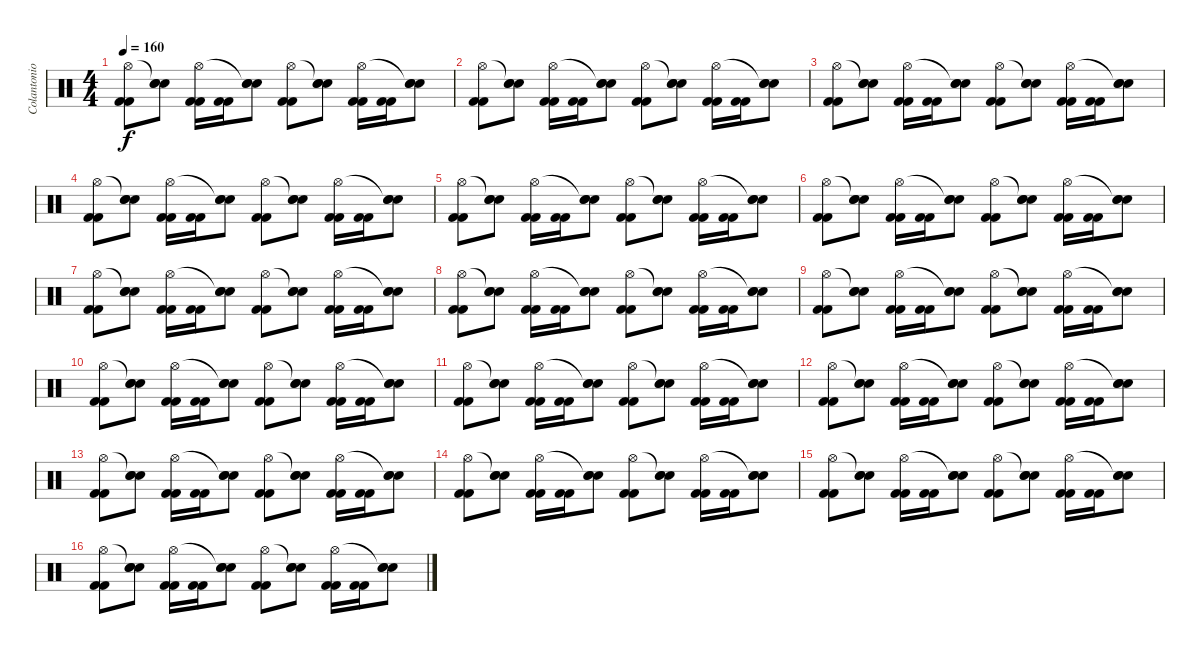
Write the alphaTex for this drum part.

\track ("Colantonio (Bateria)" "Colantonio") {instrument percussion}
\staff {score}
\articulation defaults
\ts (4 4)
\tempo 160
\clef neutral
\ks c
("Kick (hit) 2" "Kick (hit) 2" "Hi-Hat (open)").8{dy f} ("Snare (hit) 2" "Snare (hit) 2" "Snare (hit)"{t}).8 ("Kick (hit) 2" "Kick (hit) 2" "Hi-Hat (open)").16 ("Kick (hit) 2" "Kick (hit) 2").16 ("Snare (hit) 2" "Snare (hit) 2" "Snare (hit)"{t}).8 ("Kick (hit) 2" "Kick (hit) 2" "Hi-Hat (open)").8 ("Snare (hit) 2" "Snare (hit) 2" "Snare (hit)"{t}).8 ("Kick (hit) 2" "Kick (hit) 2" "Hi-Hat (open)").16 ("Kick (hit) 2" "Kick (hit) 2").16 ("Snare (hit) 2" "Snare (hit) 2" "Snare (hit)"{t}).8 |
("Kick (hit) 2" "Kick (hit) 2" "Hi-Hat (open)").8 ("Snare (hit) 2" "Snare (hit) 2" "Snare (hit)"{t}).8 ("Kick (hit) 2" "Kick (hit) 2" "Hi-Hat (open)").16 ("Kick (hit) 2" "Kick (hit) 2").16 ("Snare (hit) 2" "Snare (hit) 2" "Snare (hit)"{t}).8 ("Kick (hit) 2" "Kick (hit) 2" "Hi-Hat (open)").8 ("Snare (hit) 2" "Snare (hit) 2" "Snare (hit)"{t}).8 ("Kick (hit) 2" "Kick (hit) 2" "Hi-Hat (open)").16 ("Kick (hit) 2" "Kick (hit) 2").16 ("Snare (hit) 2" "Snare (hit) 2" "Snare (hit)"{t}).8 |
("Kick (hit) 2" "Kick (hit) 2" "Hi-Hat (open)").8 ("Snare (hit) 2" "Snare (hit) 2" "Snare (hit)"{t}).8 ("Kick (hit) 2" "Kick (hit) 2" "Hi-Hat (open)").16 ("Kick (hit) 2" "Kick (hit) 2").16 ("Snare (hit) 2" "Snare (hit) 2" "Snare (hit)"{t}).8 ("Kick (hit) 2" "Kick (hit) 2" "Hi-Hat (open)").8 ("Snare (hit) 2" "Snare (hit) 2" "Snare (hit)"{t}).8 ("Kick (hit) 2" "Kick (hit) 2" "Hi-Hat (open)").16 ("Kick (hit) 2" "Kick (hit) 2").16 ("Snare (hit) 2" "Snare (hit) 2" "Snare (hit)"{t}).8 |
("Kick (hit) 2" "Kick (hit) 2" "Hi-Hat (open)").8 ("Snare (hit) 2" "Snare (hit) 2" "Snare (hit)"{t}).8 ("Kick (hit) 2" "Kick (hit) 2" "Hi-Hat (open)").16 ("Kick (hit) 2" "Kick (hit) 2").16 ("Snare (hit) 2" "Snare (hit) 2" "Snare (hit)"{t}).8 ("Kick (hit) 2" "Kick (hit) 2" "Hi-Hat (open)").8 ("Snare (hit) 2" "Snare (hit) 2" "Snare (hit)"{t}).8 ("Kick (hit) 2" "Kick (hit) 2" "Hi-Hat (open)").16 ("Kick (hit) 2" "Kick (hit) 2").16 ("Snare (hit) 2" "Snare (hit) 2" "Snare (hit)"{t}).8 |
("Kick (hit) 2" "Kick (hit) 2" "Hi-Hat (open)").8 ("Snare (hit) 2" "Snare (hit) 2" "Snare (hit)"{t}).8 ("Kick (hit) 2" "Kick (hit) 2" "Hi-Hat (open)").16 ("Kick (hit) 2" "Kick (hit) 2").16 ("Snare (hit) 2" "Snare (hit) 2" "Snare (hit)"{t}).8 ("Kick (hit) 2" "Kick (hit) 2" "Hi-Hat (open)").8 ("Snare (hit) 2" "Snare (hit) 2" "Snare (hit)"{t}).8 ("Kick (hit) 2" "Kick (hit) 2" "Hi-Hat (open)").16 ("Kick (hit) 2" "Kick (hit) 2").16 ("Snare (hit) 2" "Snare (hit) 2" "Snare (hit)"{t}).8 |
("Kick (hit) 2" "Kick (hit) 2" "Hi-Hat (open)").8 ("Snare (hit) 2" "Snare (hit) 2" "Snare (hit)"{t}).8 ("Kick (hit) 2" "Kick (hit) 2" "Hi-Hat (open)").16 ("Kick (hit) 2" "Kick (hit) 2").16 ("Snare (hit) 2" "Snare (hit) 2" "Snare (hit)"{t}).8 ("Kick (hit) 2" "Kick (hit) 2" "Hi-Hat (open)").8 ("Snare (hit) 2" "Snare (hit) 2" "Snare (hit)"{t}).8 ("Kick (hit) 2" "Kick (hit) 2" "Hi-Hat (open)").16 ("Kick (hit) 2" "Kick (hit) 2").16 ("Snare (hit) 2" "Snare (hit) 2" "Snare (hit)"{t}).8 |
("Kick (hit) 2" "Kick (hit) 2" "Hi-Hat (open)").8 ("Snare (hit) 2" "Snare (hit) 2" "Snare (hit)"{t}).8 ("Kick (hit) 2" "Kick (hit) 2" "Hi-Hat (open)").16 ("Kick (hit) 2" "Kick (hit) 2").16 ("Snare (hit) 2" "Snare (hit) 2" "Snare (hit)"{t}).8 ("Kick (hit) 2" "Kick (hit) 2" "Hi-Hat (open)").8 ("Snare (hit) 2" "Snare (hit) 2" "Snare (hit)"{t}).8 ("Kick (hit) 2" "Kick (hit) 2" "Hi-Hat (open)").16 ("Kick (hit) 2" "Kick (hit) 2").16 ("Snare (hit) 2" "Snare (hit) 2" "Snare (hit)"{t}).8 |
("Kick (hit) 2" "Kick (hit) 2" "Hi-Hat (open)").8 ("Snare (hit) 2" "Snare (hit) 2" "Snare (hit)"{t}).8 ("Kick (hit) 2" "Kick (hit) 2" "Hi-Hat (open)").16 ("Kick (hit) 2" "Kick (hit) 2").16 ("Snare (hit) 2" "Snare (hit) 2" "Snare (hit)"{t}).8 ("Kick (hit) 2" "Kick (hit) 2" "Hi-Hat (open)").8 ("Snare (hit) 2" "Snare (hit) 2" "Snare (hit)"{t}).8 ("Kick (hit) 2" "Kick (hit) 2" "Hi-Hat (open)").16 ("Kick (hit) 2" "Kick (hit) 2").16 ("Snare (hit) 2" "Snare (hit) 2" "Snare (hit)"{t}).8 |
("Kick (hit) 2" "Kick (hit) 2" "Hi-Hat (open)").8 ("Snare (hit) 2" "Snare (hit) 2" "Snare (hit)"{t}).8 ("Kick (hit) 2" "Kick (hit) 2" "Hi-Hat (open)").16 ("Kick (hit) 2" "Kick (hit) 2").16 ("Snare (hit) 2" "Snare (hit) 2" "Snare (hit)"{t}).8 ("Kick (hit) 2" "Kick (hit) 2" "Hi-Hat (open)").8 ("Snare (hit) 2" "Snare (hit) 2" "Snare (hit)"{t}).8 ("Kick (hit) 2" "Kick (hit) 2" "Hi-Hat (open)").16 ("Kick (hit) 2" "Kick (hit) 2").16 ("Snare (hit) 2" "Snare (hit) 2" "Snare (hit)"{t}).8 |
("Kick (hit) 2" "Kick (hit) 2" "Hi-Hat (open)").8 ("Snare (hit) 2" "Snare (hit) 2" "Snare (hit)"{t}).8 ("Kick (hit) 2" "Kick (hit) 2" "Hi-Hat (open)").16 ("Kick (hit) 2" "Kick (hit) 2").16 ("Snare (hit) 2" "Snare (hit) 2" "Snare (hit)"{t}).8 ("Kick (hit) 2" "Kick (hit) 2" "Hi-Hat (open)").8 ("Snare (hit) 2" "Snare (hit) 2" "Snare (hit)"{t}).8 ("Kick (hit) 2" "Kick (hit) 2" "Hi-Hat (open)").16 ("Kick (hit) 2" "Kick (hit) 2").16 ("Snare (hit) 2" "Snare (hit) 2" "Snare (hit)"{t}).8 |
("Kick (hit) 2" "Kick (hit) 2" "Hi-Hat (open)").8 ("Snare (hit) 2" "Snare (hit) 2" "Snare (hit)"{t}).8 ("Kick (hit) 2" "Kick (hit) 2" "Hi-Hat (open)").16 ("Kick (hit) 2" "Kick (hit) 2").16 ("Snare (hit) 2" "Snare (hit) 2" "Snare (hit)"{t}).8 ("Kick (hit) 2" "Kick (hit) 2" "Hi-Hat (open)").8 ("Snare (hit) 2" "Snare (hit) 2" "Snare (hit)"{t}).8 ("Kick (hit) 2" "Kick (hit) 2" "Hi-Hat (open)").16 ("Kick (hit) 2" "Kick (hit) 2").16 ("Snare (hit) 2" "Snare (hit) 2" "Snare (hit)"{t}).8 |
("Kick (hit) 2" "Kick (hit) 2" "Hi-Hat (open)").8 ("Snare (hit) 2" "Snare (hit) 2" "Snare (hit)"{t}).8 ("Kick (hit) 2" "Kick (hit) 2" "Hi-Hat (open)").16 ("Kick (hit) 2" "Kick (hit) 2").16 ("Snare (hit) 2" "Snare (hit) 2" "Snare (hit)"{t}).8 ("Kick (hit) 2" "Kick (hit) 2" "Hi-Hat (open)").8 ("Snare (hit) 2" "Snare (hit) 2" "Snare (hit)"{t}).8 ("Kick (hit) 2" "Kick (hit) 2" "Hi-Hat (open)").16 ("Kick (hit) 2" "Kick (hit) 2").16 ("Snare (hit) 2" "Snare (hit) 2" "Snare (hit)"{t}).8 |
("Kick (hit) 2" "Kick (hit) 2" "Hi-Hat (open)").8 ("Snare (hit) 2" "Snare (hit) 2" "Snare (hit)"{t}).8 ("Kick (hit) 2" "Kick (hit) 2" "Hi-Hat (open)").16 ("Kick (hit) 2" "Kick (hit) 2").16 ("Snare (hit) 2" "Snare (hit) 2" "Snare (hit)"{t}).8 ("Kick (hit) 2" "Kick (hit) 2" "Hi-Hat (open)").8 ("Snare (hit) 2" "Snare (hit) 2" "Snare (hit)"{t}).8 ("Kick (hit) 2" "Kick (hit) 2" "Hi-Hat (open)").16 ("Kick (hit) 2" "Kick (hit) 2").16 ("Snare (hit) 2" "Snare (hit) 2" "Snare (hit)"{t}).8 |
("Kick (hit) 2" "Kick (hit) 2" "Hi-Hat (open)").8 ("Snare (hit) 2" "Snare (hit) 2" "Snare (hit)"{t}).8 ("Kick (hit) 2" "Kick (hit) 2" "Hi-Hat (open)").16 ("Kick (hit) 2" "Kick (hit) 2").16 ("Snare (hit) 2" "Snare (hit) 2" "Snare (hit)"{t}).8 ("Kick (hit) 2" "Kick (hit) 2" "Hi-Hat (open)").8 ("Snare (hit) 2" "Snare (hit) 2" "Snare (hit)"{t}).8 ("Kick (hit) 2" "Kick (hit) 2" "Hi-Hat (open)").16 ("Kick (hit) 2" "Kick (hit) 2").16 ("Snare (hit) 2" "Snare (hit) 2" "Snare (hit)"{t}).8 |
("Kick (hit) 2" "Kick (hit) 2" "Hi-Hat (open)").8 ("Snare (hit) 2" "Snare (hit) 2" "Snare (hit)"{t}).8 ("Kick (hit) 2" "Kick (hit) 2" "Hi-Hat (open)").16 ("Kick (hit) 2" "Kick (hit) 2").16 ("Snare (hit) 2" "Snare (hit) 2" "Snare (hit)"{t}).8 ("Kick (hit) 2" "Kick (hit) 2" "Hi-Hat (open)").8 ("Snare (hit) 2" "Snare (hit) 2" "Snare (hit)"{t}).8 ("Kick (hit) 2" "Kick (hit) 2" "Hi-Hat (open)").16 ("Kick (hit) 2" "Kick (hit) 2").16 ("Snare (hit) 2" "Snare (hit) 2" "Snare (hit)"{t}).8 |
("Kick (hit) 2" "Kick (hit) 2" "Hi-Hat (open)").8 ("Snare (hit) 2" "Snare (hit) 2" "Snare (hit)"{t}).8 ("Kick (hit) 2" "Kick (hit) 2" "Hi-Hat (open)").16 ("Kick (hit) 2" "Kick (hit) 2").16 ("Snare (hit) 2" "Snare (hit) 2" "Snare (hit)"{t}).8 ("Kick (hit) 2" "Kick (hit) 2" "Hi-Hat (open)").8 ("Snare (hit) 2" "Snare (hit) 2" "Snare (hit)"{t}).8 ("Kick (hit) 2" "Kick (hit) 2" "Hi-Hat (open)").16 ("Kick (hit) 2" "Kick (hit) 2").16 ("Snare (hit) 2" "Snare (hit) 2" "Snare (hit)"{t}).8
